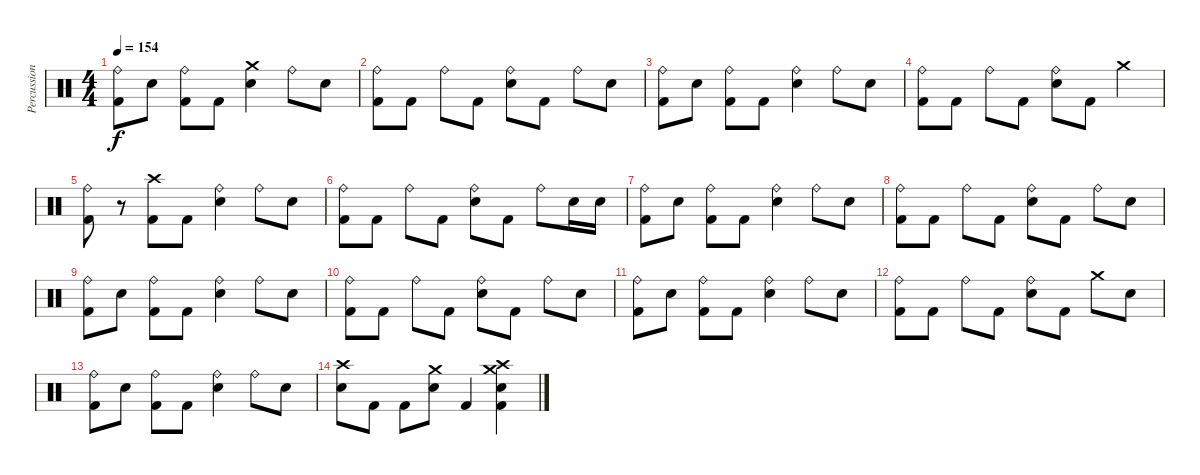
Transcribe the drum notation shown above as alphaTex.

\track ("Percussion" "Percussion") {instrument percussion}
\staff {score}
\articulation defaults
\ts (4 4)
\tempo 154
\clef neutral
\ks c
("Ride (bell)" "Kick (hit) 2").8{dy f} "Snare (hit) 2".8 ("Ride (bell)" "Kick (hit) 2").8 "Kick (hit) 2".8 ("Crash medium (hit)" "Snare (hit) 2").4 "Ride (bell)".8 "Snare (hit) 2".8 |
("Ride (bell)" "Kick (hit) 2").8 "Kick (hit) 2".8 "Ride (bell)".8 "Kick (hit) 2".8 ("Ride (bell)" "Snare (hit) 2").8 "Kick (hit) 2".8 "Ride (bell)".8 "Snare (hit) 2".8 |
("Ride (bell)" "Kick (hit) 2").8 "Snare (hit) 2".8 ("Ride (bell)" "Kick (hit) 2").8 "Kick (hit) 2".8 ("Ride (bell)" "Snare (hit) 2").4 "Ride (bell)".8 "Snare (hit) 2".8 |
("Ride (bell)" "Kick (hit) 2").8 "Kick (hit) 2".8 "Ride (bell)".8 "Kick (hit) 2".8 ("Ride (bell)" "Snare (hit) 2").8 "Kick (hit) 2".8 "Crash medium (hit)".4 |
("Ride (bell)" "Kick (hit) 2").8 r.8 ("Crash high (hit)" "Kick (hit) 2").8 "Kick (hit) 2".8 ("Ride (bell)" "Snare (hit) 2").4 "Ride (bell)".8 "Snare (hit) 2".8 |
("Ride (bell)" "Kick (hit) 2").8 "Kick (hit) 2".8 "Ride (bell)".8 "Kick (hit) 2".8 ("Ride (bell)" "Snare (hit) 2").8 "Kick (hit) 2".8 "Ride (bell)".8 "Snare (hit) 2".16 "Snare (hit) 2".16 |
("Ride (bell)" "Kick (hit) 2").8 "Snare (hit) 2".8 ("Ride (bell)" "Kick (hit) 2").8 "Kick (hit) 2".8 ("Ride (bell)" "Snare (hit) 2").4 "Ride (bell)".8 "Snare (hit) 2".8 |
("Ride (bell)" "Kick (hit) 2").8 "Kick (hit) 2".8 "Ride (bell)".8 "Kick (hit) 2".8 ("Ride (bell)" "Snare (hit) 2").8 "Kick (hit) 2".8 "Ride (bell)".8 "Snare (hit) 2".8 |
("Ride (bell)" "Kick (hit) 2").8 "Snare (hit) 2".8 ("Ride (bell)" "Kick (hit) 2").8 "Kick (hit) 2".8 ("Ride (bell)" "Snare (hit) 2").4 "Ride (bell)".8 "Snare (hit) 2".8 |
("Ride (bell)" "Kick (hit) 2").8 "Kick (hit) 2".8 "Ride (bell)".8 "Kick (hit) 2".8 ("Ride (bell)" "Snare (hit) 2").8 "Kick (hit) 2".8 "Ride (bell)".8 "Snare (hit) 2".8 |
("Ride (bell)" "Kick (hit) 2").8 "Snare (hit) 2".8 ("Ride (bell)" "Kick (hit) 2").8 "Kick (hit) 2".8 ("Ride (bell)" "Snare (hit) 2").4 "Ride (bell)".8 "Snare (hit) 2".8 |
("Ride (bell)" "Kick (hit) 2").8 "Kick (hit) 2".8 "Ride (bell)".8 "Kick (hit) 2".8 ("Ride (bell)" "Snare (hit) 2").8 "Kick (hit) 2".8 "Crash medium (hit)".8 "Snare (hit) 2".8 |
("Ride (bell)" "Kick (hit) 2").8 "Snare (hit) 2".8 ("Ride (bell)" "Kick (hit) 2").8 "Kick (hit) 2".8 ("Ride (bell)" "Snare (hit) 2").4 "Ride (bell)".8 "Snare (hit) 2".8 |
("Crash high (hit)" "Snare (hit) 2").8 "Kick (hit) 2".8 "Kick (hit) 2".8 ("Crash medium (hit)" "Snare (hit) 2").8 "Kick (hit) 2".4 ("Crash high (hit)" "Crash medium (hit)" "Snare (hit) 2" "Kick (hit) 2").4
